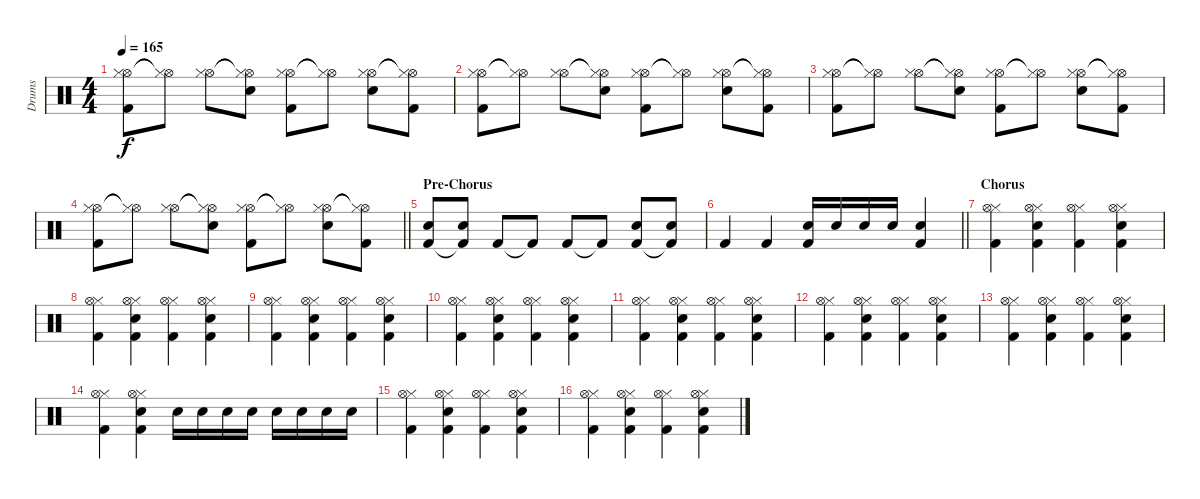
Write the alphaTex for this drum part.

\track ("Drums" "Drums") {instrument percussion}
\staff {score}
\articulation defaults
\ts (4 4)
\tempo 165
\clef neutral
\ks c
("Hi-Hat (open)" "Hi-Hat (closed)" "Kick (hit) 2").8{dy f} ("Hi-Hat (open)"{t} "Hi-Hat (closed)"{t}).8 ("Hi-Hat (open)" "Hi-Hat (closed)").8 ("Hi-Hat (open)"{t} "Hi-Hat (closed)"{t} "Snare (hit) 2").8 ("Hi-Hat (open)" "Hi-Hat (closed)" "Kick (hit) 2").8 ("Hi-Hat (open)"{t} "Hi-Hat (closed)"{t}).8 ("Hi-Hat (open)" "Hi-Hat (closed)" "Snare (hit) 2").8 ("Hi-Hat (open)"{t} "Hi-Hat (closed)"{t} "Kick (hit) 2").8 |
("Hi-Hat (open)" "Hi-Hat (closed)" "Kick (hit) 2").8 ("Hi-Hat (open)"{t} "Hi-Hat (closed)"{t}).8 ("Hi-Hat (open)" "Hi-Hat (closed)").8 ("Hi-Hat (open)"{t} "Hi-Hat (closed)"{t} "Snare (hit) 2").8 ("Hi-Hat (open)" "Hi-Hat (closed)" "Kick (hit) 2").8 ("Hi-Hat (open)"{t} "Hi-Hat (closed)"{t}).8 ("Hi-Hat (open)" "Hi-Hat (closed)" "Snare (hit) 2").8 ("Hi-Hat (open)"{t} "Hi-Hat (closed)"{t} "Kick (hit) 2").8 |
("Hi-Hat (open)" "Hi-Hat (closed)" "Kick (hit) 2").8 ("Hi-Hat (open)"{t} "Hi-Hat (closed)"{t}).8 ("Hi-Hat (open)" "Hi-Hat (closed)").8 ("Hi-Hat (open)"{t} "Hi-Hat (closed)"{t} "Snare (hit) 2").8 ("Hi-Hat (open)" "Hi-Hat (closed)" "Kick (hit) 2").8 ("Hi-Hat (open)"{t} "Hi-Hat (closed)"{t}).8 ("Hi-Hat (open)" "Hi-Hat (closed)" "Snare (hit) 2").8 ("Hi-Hat (open)"{t} "Hi-Hat (closed)"{t} "Kick (hit) 2").8 |
\barLineRight lightlight
("Hi-Hat (open)" "Hi-Hat (closed)" "Kick (hit) 2").8 ("Hi-Hat (open)"{t} "Hi-Hat (closed)"{t}).8 ("Hi-Hat (open)" "Hi-Hat (closed)").8 ("Hi-Hat (open)"{t} "Hi-Hat (closed)"{t} "Snare (hit) 2").8 ("Hi-Hat (open)" "Hi-Hat (closed)" "Kick (hit) 2").8 ("Hi-Hat (open)"{t} "Hi-Hat (closed)"{t}).8 ("Hi-Hat (open)" "Hi-Hat (closed)" "Snare (hit) 2").8 ("Hi-Hat (open)"{t} "Hi-Hat (closed)"{t} "Kick (hit) 2").8 |
\section ("" "Pre-Chorus")
("Snare (hit) 2" "Kick (hit) 2").8 ("Snare (hit) 2" "Kick (hit) 2"{t}).8 "Kick (hit) 2".8 "Kick (hit) 2"{t}.8 "Kick (hit) 2".8 "Kick (hit) 2"{t}.8 ("Snare (hit) 2" "Kick (hit) 2").8 ("Snare (hit) 2" "Kick (hit) 2"{t}).8 |
\barLineRight lightlight "Kick (hit) 2".4 "Kick (hit) 2".4
("Snare (hit) 2" "Kick (hit) 2").16 "Snare (hit) 2".16 "Snare (hit) 2".16 "Snare (hit) 2".16 ("Snare (hit) 2" "Kick (hit) 2").4 |
\section ("" "Chorus")
("Hi-Hat (closed)" "Hi-Hat (open)" "Kick (hit) 2").4 ("Hi-Hat (closed)" "Hi-Hat (open)" "Snare (hit) 2" "Kick (hit) 2").4 ("Hi-Hat (closed)" "Hi-Hat (open)" "Kick (hit) 2").4 ("Hi-Hat (closed)" "Hi-Hat (open)" "Snare (hit) 2" "Kick (hit) 2").4 |
("Hi-Hat (closed)" "Hi-Hat (open)" "Kick (hit) 2").4 ("Hi-Hat (closed)" "Hi-Hat (open)" "Snare (hit) 2" "Kick (hit) 2").4 ("Hi-Hat (closed)" "Hi-Hat (open)" "Kick (hit) 2").4 ("Hi-Hat (closed)" "Hi-Hat (open)" "Snare (hit) 2" "Kick (hit) 2").4 |
("Hi-Hat (closed)" "Hi-Hat (open)" "Kick (hit) 2").4 ("Hi-Hat (closed)" "Hi-Hat (open)" "Snare (hit) 2" "Kick (hit) 2").4 ("Hi-Hat (closed)" "Hi-Hat (open)" "Kick (hit) 2").4 ("Hi-Hat (closed)" "Hi-Hat (open)" "Snare (hit) 2" "Kick (hit) 2").4 |
("Hi-Hat (closed)" "Hi-Hat (open)" "Kick (hit) 2").4 ("Hi-Hat (closed)" "Hi-Hat (open)" "Snare (hit) 2" "Kick (hit) 2").4 ("Hi-Hat (closed)" "Hi-Hat (open)" "Kick (hit) 2").4 ("Hi-Hat (closed)" "Hi-Hat (open)" "Snare (hit) 2" "Kick (hit) 2").4 |
("Hi-Hat (closed)" "Hi-Hat (open)" "Kick (hit) 2").4 ("Hi-Hat (closed)" "Hi-Hat (open)" "Snare (hit) 2" "Kick (hit) 2").4 ("Hi-Hat (closed)" "Hi-Hat (open)" "Kick (hit) 2").4 ("Hi-Hat (closed)" "Hi-Hat (open)" "Snare (hit) 2" "Kick (hit) 2").4 |
("Hi-Hat (closed)" "Hi-Hat (open)" "Kick (hit) 2").4 ("Hi-Hat (closed)" "Hi-Hat (open)" "Snare (hit) 2" "Kick (hit) 2").4 ("Hi-Hat (closed)" "Hi-Hat (open)" "Kick (hit) 2").4 ("Hi-Hat (closed)" "Hi-Hat (open)" "Snare (hit) 2" "Kick (hit) 2").4 |
("Hi-Hat (closed)" "Hi-Hat (open)" "Kick (hit) 2").4 ("Hi-Hat (closed)" "Hi-Hat (open)" "Snare (hit) 2" "Kick (hit) 2").4 ("Hi-Hat (closed)" "Hi-Hat (open)" "Kick (hit) 2").4 ("Hi-Hat (closed)" "Hi-Hat (open)" "Snare (hit) 2" "Kick (hit) 2").4 |
("Hi-Hat (closed)" "Hi-Hat (open)" "Kick (hit) 2").4 ("Hi-Hat (closed)" "Hi-Hat (open)" "Snare (hit) 2" "Kick (hit) 2").4 "Snare (hit) 2".16 "Snare (hit) 2".16 "Snare (hit) 2".16 "Snare (hit) 2".16 "Snare (hit) 2".16 "Snare (hit) 2".16 "Snare (hit) 2".16 "Snare (hit) 2".16 |
("Hi-Hat (closed)" "Hi-Hat (open)" "Kick (hit) 2").4 ("Hi-Hat (closed)" "Hi-Hat (open)" "Snare (hit) 2" "Kick (hit) 2").4 ("Hi-Hat (closed)" "Hi-Hat (open)" "Kick (hit) 2").4 ("Hi-Hat (closed)" "Hi-Hat (open)" "Snare (hit) 2" "Kick (hit) 2").4 |
("Hi-Hat (closed)" "Hi-Hat (open)" "Kick (hit) 2").4 ("Hi-Hat (closed)" "Hi-Hat (open)" "Snare (hit) 2" "Kick (hit) 2").4 ("Hi-Hat (closed)" "Hi-Hat (open)" "Kick (hit) 2").4 ("Hi-Hat (closed)" "Hi-Hat (open)" "Snare (hit) 2" "Kick (hit) 2").4
